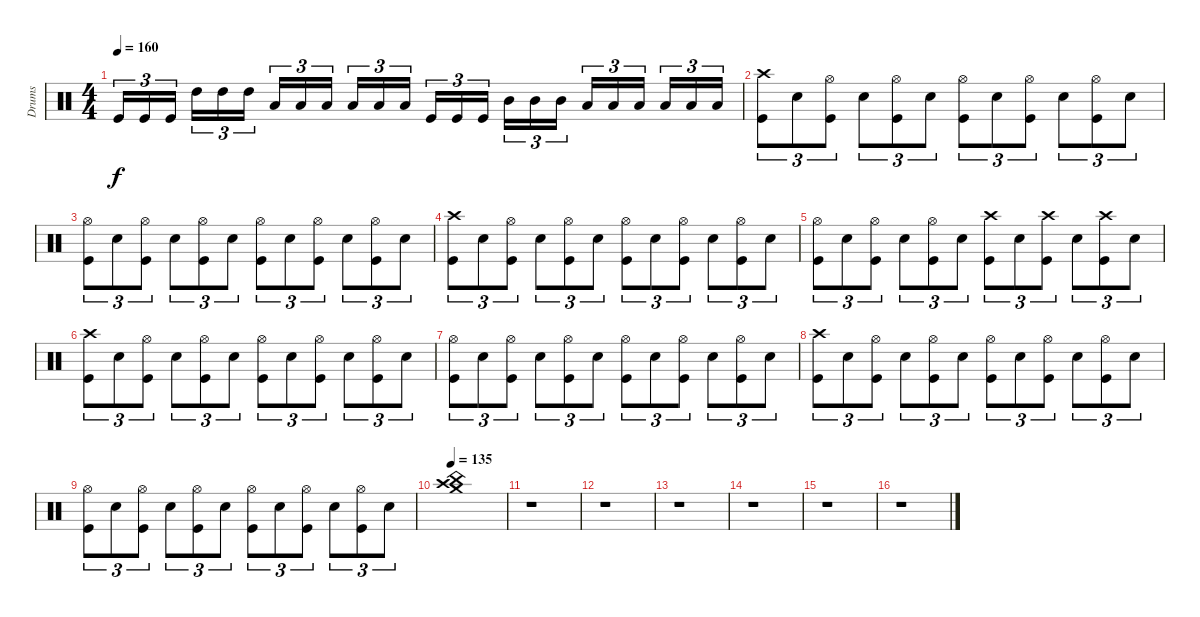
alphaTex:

\track ("Drums" "Drums") {instrument percussion}
\staff {score}
\articulation defaults
\ts (4 4)
\tempo 160
\clef neutral
\ks c "Kick (hit)".16{tu (3 2) dy f} "Kick (hit)".16{tu (3 2)} "Kick (hit)".16{tu (3 2)} "High Tom (hit)".16{tu (3 2)} "High Tom (hit)".16{tu (3 2)} "High Tom (hit)".16{tu (3 2)} "Low Tom (hit)".16{tu (3 2)} "Low Tom (hit)".16{tu (3 2)} "Low Tom (hit)".16{tu (3 2)} "Low Tom (hit)".16{tu (3 2)} "Low Tom (hit)".16{tu (3 2)} "Low Tom (hit)".16{tu (3 2)} "Kick (hit)".16{tu (3 2)} "Kick (hit)".16{tu (3 2)} "Kick (hit)".16{tu (3 2)} "Mid Tom (hit)".16{tu (3 2)} "Mid Tom (hit)".16{tu (3 2)} "Mid Tom (hit)".16{tu (3 2)} "Low Tom (hit)".16{tu (3 2)} "Low Tom (hit)".16{tu (3 2)} "Low Tom (hit)".16{tu (3 2)} "Low Tom (hit)".16{tu (3 2)} "Low Tom (hit)".16{tu (3 2)} "Low Tom (hit)".16{tu (3 2)}
|
("Crash high (hit)" "Kick (hit)").8{tu (3 2)} "Electric Snare (hit)".8{tu (3 2)} ("Hi-Hat (open)" "Kick (hit)").8{tu (3 2)} "Electric Snare (hit)".8{tu (3 2)} ("Hi-Hat (open)" "Kick (hit)").8{tu (3 2)} "Electric Snare (hit)".8{tu (3 2)} ("Hi-Hat (open)" "Kick (hit)").8{tu (3 2)} "Electric Snare (hit)".8{tu (3 2)} ("Hi-Hat (open)" "Kick (hit)").8{tu (3 2)} "Electric Snare (hit)".8{tu (3 2)} ("Hi-Hat (open)" "Kick (hit)").8{tu (3 2)} "Electric Snare (hit)".8{tu (3 2)} |
("Hi-Hat (open)" "Kick (hit)").8{tu (3 2)} "Electric Snare (hit)".8{tu (3 2)} ("Hi-Hat (open)" "Kick (hit)").8{tu (3 2)} "Electric Snare (hit)".8{tu (3 2)} ("Hi-Hat (open)" "Kick (hit)").8{tu (3 2)} "Electric Snare (hit)".8{tu (3 2)} ("Hi-Hat (open)" "Kick (hit)").8{tu (3 2)} "Electric Snare (hit)".8{tu (3 2)} ("Hi-Hat (open)" "Kick (hit)").8{tu (3 2)} "Electric Snare (hit)".8{tu (3 2)} ("Hi-Hat (open)" "Kick (hit)").8{tu (3 2)} "Electric Snare (hit)".8{tu (3 2)} |
("Crash high (hit)" "Kick (hit)").8{tu (3 2)} "Electric Snare (hit)".8{tu (3 2)} ("Hi-Hat (open)" "Kick (hit)").8{tu (3 2)} "Electric Snare (hit)".8{tu (3 2)} ("Hi-Hat (open)" "Kick (hit)").8{tu (3 2)} "Electric Snare (hit)".8{tu (3 2)} ("Hi-Hat (open)" "Kick (hit)").8{tu (3 2)} "Electric Snare (hit)".8{tu (3 2)} ("Hi-Hat (open)" "Kick (hit)").8{tu (3 2)} "Electric Snare (hit)".8{tu (3 2)} ("Hi-Hat (open)" "Kick (hit)").8{tu (3 2)} "Electric Snare (hit)".8{tu (3 2)} |
("Hi-Hat (open)" "Kick (hit)").8{tu (3 2)} "Electric Snare (hit)".8{tu (3 2)} ("Hi-Hat (open)" "Kick (hit)").8{tu (3 2)} "Electric Snare (hit)".8{tu (3 2)} ("Hi-Hat (open)" "Kick (hit)").8{tu (3 2)} "Electric Snare (hit)".8{tu (3 2)} ("Crash high (hit)" "Kick (hit)").8{tu (3 2)} "Electric Snare (hit)".8{tu (3 2)} ("Crash high (hit)" "Kick (hit)").8{tu (3 2)} "Electric Snare (hit)".8{tu (3 2)} ("Crash high (hit)" "Kick (hit)").8{tu (3 2)} "Electric Snare (hit)".8{tu (3 2)} |
("Crash high (hit)" "Kick (hit)").8{tu (3 2)} "Electric Snare (hit)".8{tu (3 2)} ("Hi-Hat (open)" "Kick (hit)").8{tu (3 2)} "Electric Snare (hit)".8{tu (3 2)} ("Hi-Hat (open)" "Kick (hit)").8{tu (3 2)} "Electric Snare (hit)".8{tu (3 2)} ("Hi-Hat (open)" "Kick (hit)").8{tu (3 2)} "Electric Snare (hit)".8{tu (3 2)} ("Hi-Hat (open)" "Kick (hit)").8{tu (3 2)} "Electric Snare (hit)".8{tu (3 2)} ("Hi-Hat (open)" "Kick (hit)").8{tu (3 2)} "Electric Snare (hit)".8{tu (3 2)} |
("Hi-Hat (open)" "Kick (hit)").8{tu (3 2)} "Electric Snare (hit)".8{tu (3 2)} ("Hi-Hat (open)" "Kick (hit)").8{tu (3 2)} "Electric Snare (hit)".8{tu (3 2)} ("Hi-Hat (open)" "Kick (hit)").8{tu (3 2)} "Electric Snare (hit)".8{tu (3 2)} ("Hi-Hat (open)" "Kick (hit)").8{tu (3 2)} "Electric Snare (hit)".8{tu (3 2)} ("Hi-Hat (open)" "Kick (hit)").8{tu (3 2)} "Electric Snare (hit)".8{tu (3 2)} ("Hi-Hat (open)" "Kick (hit)").8{tu (3 2)} "Electric Snare (hit)".8{tu (3 2)} |
("Crash high (hit)" "Kick (hit)").8{tu (3 2)} "Electric Snare (hit)".8{tu (3 2)} ("Hi-Hat (open)" "Kick (hit)").8{tu (3 2)} "Electric Snare (hit)".8{tu (3 2)} ("Hi-Hat (open)" "Kick (hit)").8{tu (3 2)} "Electric Snare (hit)".8{tu (3 2)} ("Hi-Hat (open)" "Kick (hit)").8{tu (3 2)} "Electric Snare (hit)".8{tu (3 2)} ("Hi-Hat (open)" "Kick (hit)").8{tu (3 2)} "Electric Snare (hit)".8{tu (3 2)} ("Hi-Hat (open)" "Kick (hit)").8{tu (3 2)} "Electric Snare (hit)".8{tu (3 2)} |
("Hi-Hat (open)" "Kick (hit)").8{tu (3 2)} "Electric Snare (hit)".8{tu (3 2)} ("Hi-Hat (open)" "Kick (hit)").8{tu (3 2)} "Electric Snare (hit)".8{tu (3 2)} ("Hi-Hat (open)" "Kick (hit)").8{tu (3 2)} "Electric Snare (hit)".8{tu (3 2)} ("Hi-Hat (open)" "Kick (hit)").8{tu (3 2)} "Electric Snare (hit)".8{tu (3 2)} ("Hi-Hat (open)" "Kick (hit)").8{tu (3 2)} "Electric Snare (hit)".8{tu (3 2)} ("Hi-Hat (open)" "Kick (hit)").8{tu (3 2)} "Electric Snare (hit)".8{tu (3 2)} |
\tempo 135
("Crash high (hit)" "China (hit)" "Crash medium (hit)").1 |
r.1 |
r.1 |
r.1 |
r.1 |
r.1 |
r.1
